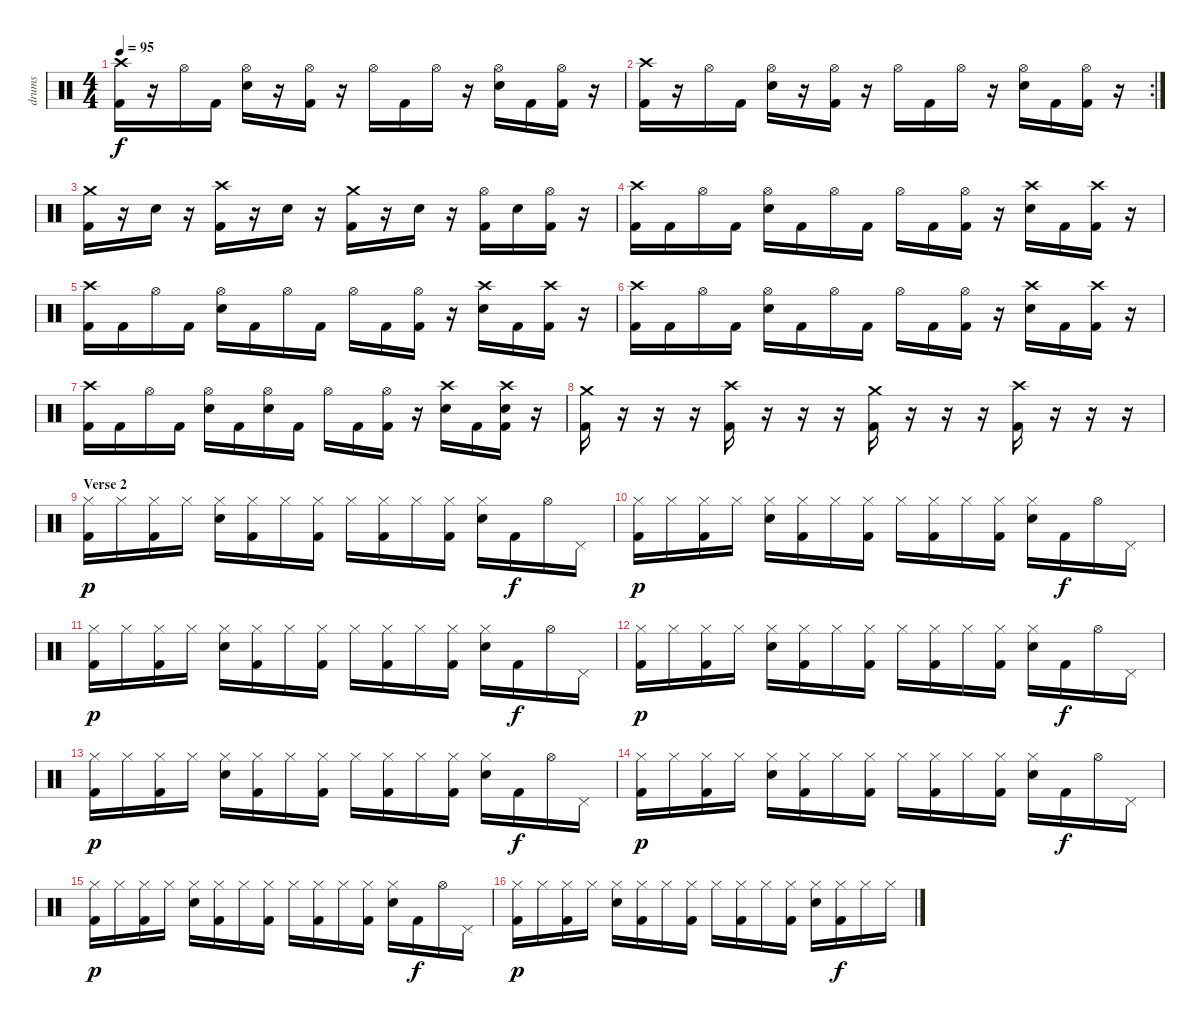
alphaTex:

\track ("drums" "drums") {instrument percussion}
\staff {score}
\articulation defaults
\ts (4 4)
\tempo 95
\clef neutral
\ks c
("Kick (hit) 2" "Crash high (hit)").16{dy f} r.16 "Hi-Hat (open)".16 "Kick (hit) 2".16 ("Electric Snare (hit)" "Hi-Hat (open)").16 r.16 ("Kick (hit) 2" "Hi-Hat (open)").16 r.16 "Hi-Hat (open)".16 "Kick (hit) 2".16 "Hi-Hat (open)".16 r.16 ("Electric Snare (hit)" "Hi-Hat (open)").16 "Kick (hit) 2".16 ("Kick (hit) 2" "Hi-Hat (open)").16 r.16 |
\rc 2
("Kick (hit) 2" "Crash high (hit)").16 r.16 "Hi-Hat (open)".16 "Kick (hit) 2".16 ("Electric Snare (hit)" "Hi-Hat (open)").16 r.16 ("Kick (hit) 2" "Hi-Hat (open)").16 r.16 "Hi-Hat (open)".16 "Kick (hit) 2".16 "Hi-Hat (open)".16 r.16 ("Electric Snare (hit)" "Hi-Hat (open)").16 "Kick (hit) 2".16 ("Kick (hit) 2" "Hi-Hat (open)").16 r.16 |
("Kick (hit) 2" "Crash medium (hit)").16 r.16 "Electric Snare (hit)".16 r.16 ("Kick (hit) 2" "Crash high (hit)").16 r.16 "Electric Snare (hit)".16 r.16 ("Kick (hit) 2" "Crash medium (hit)").16 r.16 "Electric Snare (hit)".16 r.16 ("Kick (hit) 2" "Hi-Hat (open)").16 "Electric Snare (hit)".16 ("Kick (hit) 2" "Hi-Hat (open)").16 r.16 |
("Kick (hit) 2" "Crash high (hit)").16 "Kick (hit) 2".16 "Hi-Hat (open)".16 "Kick (hit) 2".16 ("Electric Snare (hit)" "Hi-Hat (open)").16 "Kick (hit) 2".16 "Hi-Hat (open)".16 "Kick (hit) 2".16 "Hi-Hat (open)".16 "Kick (hit) 2".16 ("Kick (hit) 2" "Hi-Hat (open)").16 r.16 ("Electric Snare (hit)" "Crash high (hit)").16 "Kick (hit) 2".16 ("Kick (hit) 2" "Crash high (hit)").16 r.16 |
("Kick (hit) 2" "Crash high (hit)").16 "Kick (hit) 2".16 "Hi-Hat (open)".16 "Kick (hit) 2".16 ("Electric Snare (hit)" "Hi-Hat (open)").16 "Kick (hit) 2".16 "Hi-Hat (open)".16 "Kick (hit) 2".16 "Hi-Hat (open)".16 "Kick (hit) 2".16 ("Kick (hit) 2" "Hi-Hat (open)").16 r.16 ("Electric Snare (hit)" "Crash high (hit)").16 "Kick (hit) 2".16 ("Kick (hit) 2" "Crash high (hit)").16 r.16 |
("Kick (hit) 2" "Crash high (hit)").16 "Kick (hit) 2".16 "Hi-Hat (open)".16 "Kick (hit) 2".16 ("Electric Snare (hit)" "Hi-Hat (open)").16 "Kick (hit) 2".16 "Hi-Hat (open)".16 "Kick (hit) 2".16 "Hi-Hat (open)".16 "Kick (hit) 2".16 ("Kick (hit) 2" "Hi-Hat (open)").16 r.16 ("Electric Snare (hit)" "Crash high (hit)").16 "Kick (hit) 2".16 ("Kick (hit) 2" "Crash high (hit)").16 r.16 |
("Kick (hit) 2" "Crash high (hit)").16 "Kick (hit) 2".16 "Hi-Hat (open)".16 "Kick (hit) 2".16 ("Electric Snare (hit)" "Hi-Hat (open)").16 "Kick (hit) 2".16 ("Electric Snare (hit)" "Hi-Hat (open)").16 "Kick (hit) 2".16 "Hi-Hat (open)".16 "Kick (hit) 2".16 ("Kick (hit) 2" "Hi-Hat (open)").16 r.16 ("Electric Snare (hit)" "Crash high (hit)").16 "Kick (hit) 2".16 ("Kick (hit) 2" "Electric Snare (hit)" "Crash high (hit)").16 r.16 |
("Kick (hit) 2" "Crash medium (hit)").16 r.16 r.16 r.16 ("Kick (hit) 2" "Crash high (hit)").16 r.16 r.16 r.16 ("Kick (hit) 2" "Crash medium (hit)").16 r.16 r.16 r.16 ("Kick (hit) 2" "Crash high (hit)").16 r.16 r.16 r.16 |
\section ("" "Verse 2")
("Kick (hit) 2" "Hi-Hat (closed)").16{dy p} "Hi-Hat (closed)".16 ("Kick (hit) 2" "Hi-Hat (closed)").16 "Hi-Hat (closed)".16 ("Electric Snare (hit)" "Hi-Hat (closed)").16 ("Kick (hit) 2" "Hi-Hat (closed)").16 "Hi-Hat (closed)".16 ("Kick (hit) 2" "Hi-Hat (closed)").16 "Hi-Hat (closed)".16 ("Kick (hit) 2" "Hi-Hat (closed)").16 "Hi-Hat (closed)".16 ("Kick (hit) 2" "Hi-Hat (closed)").16 ("Electric Snare (hit)" "Hi-Hat (closed)").16 "Kick (hit) 2".16{dy f} "Hi-Hat (open)".16 "Pedal Hi-Hat (hit)".16 |
("Kick (hit) 2" "Hi-Hat (closed)").16{dy p} "Hi-Hat (closed)".16 ("Kick (hit) 2" "Hi-Hat (closed)").16 "Hi-Hat (closed)".16 ("Electric Snare (hit)" "Hi-Hat (closed)").16 ("Kick (hit) 2" "Hi-Hat (closed)").16 "Hi-Hat (closed)".16 ("Kick (hit) 2" "Hi-Hat (closed)").16 "Hi-Hat (closed)".16 ("Kick (hit) 2" "Hi-Hat (closed)").16 "Hi-Hat (closed)".16 ("Kick (hit) 2" "Hi-Hat (closed)").16 ("Electric Snare (hit)" "Hi-Hat (closed)").16 "Kick (hit) 2".16{dy f} "Hi-Hat (open)".16 "Pedal Hi-Hat (hit)".16 |
("Kick (hit) 2" "Hi-Hat (closed)").16{dy p} "Hi-Hat (closed)".16 ("Kick (hit) 2" "Hi-Hat (closed)").16 "Hi-Hat (closed)".16 ("Electric Snare (hit)" "Hi-Hat (closed)").16 ("Kick (hit) 2" "Hi-Hat (closed)").16 "Hi-Hat (closed)".16 ("Kick (hit) 2" "Hi-Hat (closed)").16 "Hi-Hat (closed)".16 ("Kick (hit) 2" "Hi-Hat (closed)").16 "Hi-Hat (closed)".16 ("Kick (hit) 2" "Hi-Hat (closed)").16 ("Electric Snare (hit)" "Hi-Hat (closed)").16 "Kick (hit) 2".16{dy f} "Hi-Hat (open)".16 "Pedal Hi-Hat (hit)".16 |
("Kick (hit) 2" "Hi-Hat (closed)").16{dy p} "Hi-Hat (closed)".16 ("Kick (hit) 2" "Hi-Hat (closed)").16 "Hi-Hat (closed)".16 ("Electric Snare (hit)" "Hi-Hat (closed)").16 ("Kick (hit) 2" "Hi-Hat (closed)").16 "Hi-Hat (closed)".16 ("Kick (hit) 2" "Hi-Hat (closed)").16 "Hi-Hat (closed)".16 ("Kick (hit) 2" "Hi-Hat (closed)").16 "Hi-Hat (closed)".16 ("Kick (hit) 2" "Hi-Hat (closed)").16 ("Electric Snare (hit)" "Hi-Hat (closed)").16 "Kick (hit) 2".16{dy f} "Hi-Hat (open)".16 "Pedal Hi-Hat (hit)".16 |
("Kick (hit) 2" "Hi-Hat (closed)").16{dy p} "Hi-Hat (closed)".16 ("Kick (hit) 2" "Hi-Hat (closed)").16 "Hi-Hat (closed)".16 ("Electric Snare (hit)" "Hi-Hat (closed)").16 ("Kick (hit) 2" "Hi-Hat (closed)").16 "Hi-Hat (closed)".16 ("Kick (hit) 2" "Hi-Hat (closed)").16 "Hi-Hat (closed)".16 ("Kick (hit) 2" "Hi-Hat (closed)").16 "Hi-Hat (closed)".16 ("Kick (hit) 2" "Hi-Hat (closed)").16 ("Electric Snare (hit)" "Hi-Hat (closed)").16 "Kick (hit) 2".16{dy f} "Hi-Hat (open)".16 "Pedal Hi-Hat (hit)".16 |
("Kick (hit) 2" "Hi-Hat (closed)").16{dy p} "Hi-Hat (closed)".16 ("Kick (hit) 2" "Hi-Hat (closed)").16 "Hi-Hat (closed)".16 ("Electric Snare (hit)" "Hi-Hat (closed)").16 ("Kick (hit) 2" "Hi-Hat (closed)").16 "Hi-Hat (closed)".16 ("Kick (hit) 2" "Hi-Hat (closed)").16 "Hi-Hat (closed)".16 ("Kick (hit) 2" "Hi-Hat (closed)").16 "Hi-Hat (closed)".16 ("Kick (hit) 2" "Hi-Hat (closed)").16 ("Electric Snare (hit)" "Hi-Hat (closed)").16 "Kick (hit) 2".16{dy f} "Hi-Hat (open)".16 "Pedal Hi-Hat (hit)".16 |
("Kick (hit) 2" "Hi-Hat (closed)").16{dy p} "Hi-Hat (closed)".16 ("Kick (hit) 2" "Hi-Hat (closed)").16 "Hi-Hat (closed)".16 ("Electric Snare (hit)" "Hi-Hat (closed)").16 ("Kick (hit) 2" "Hi-Hat (closed)").16 "Hi-Hat (closed)".16 ("Kick (hit) 2" "Hi-Hat (closed)").16 "Hi-Hat (closed)".16 ("Kick (hit) 2" "Hi-Hat (closed)").16 "Hi-Hat (closed)".16 ("Kick (hit) 2" "Hi-Hat (closed)").16 ("Electric Snare (hit)" "Hi-Hat (closed)").16 "Kick (hit) 2".16{dy f} "Hi-Hat (open)".16 "Pedal Hi-Hat (hit)".16 |
("Kick (hit) 2" "Hi-Hat (closed)").16{dy p} "Hi-Hat (closed)".16 ("Kick (hit) 2" "Hi-Hat (closed)").16 "Hi-Hat (closed)".16 ("Electric Snare (hit)" "Hi-Hat (closed)").16 ("Kick (hit) 2" "Hi-Hat (closed)").16 "Hi-Hat (closed)".16 ("Kick (hit) 2" "Hi-Hat (closed)").16 "Hi-Hat (closed)".16 ("Kick (hit) 2" "Hi-Hat (closed)").16 "Hi-Hat (closed)".16 ("Kick (hit) 2" "Hi-Hat (closed)").16 ("Electric Snare (hit)" "Hi-Hat (closed)").16 ("Kick (hit) 2" "Hi-Hat (closed)").16{dy f} "Hi-Hat (closed)".16 "Hi-Hat (closed)".16
